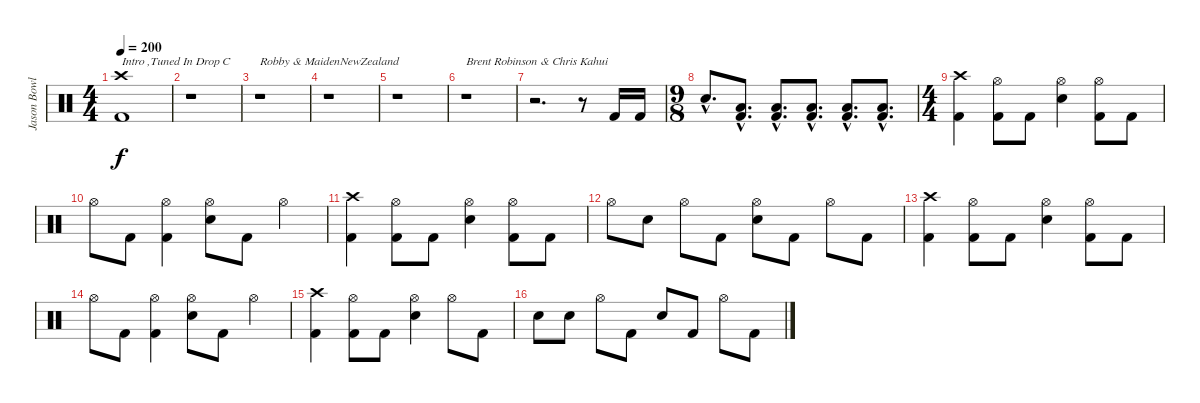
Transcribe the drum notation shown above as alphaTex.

\track ("Jason Bowld" "Jason Bowl") {instrument percussion}
\staff {score}
\articulation defaults
\ts (4 4)
\tempo 200
\clef neutral
\ks c
("Crash high (hit)" "Kick (hit) 2").1{txt "Intro ,Tuned In Drop C" dy f} |
r.1 |
r.1{txt "Robby & MaidenNewZealand"} |
r.1 |
r.1 |
r.1{txt "Brent Robinson & Chris Kahui"} |
r.2{d} r.8 "Kick (hit) 2".16 "Kick (hit) 2".16 |
\ts (9 8)
"Snare (hit) 2"{hac}.8{d} ("Low Floor Tom (hit)"{hac} "Kick (hit) 2"{hac}).8{d} ("Low Floor Tom (hit)"{hac} "Kick (hit) 2"{hac}).8{d} ("Low Floor Tom (hit)"{hac} "Kick (hit) 2"{hac}).8{d} ("Low Floor Tom (hit)"{hac} "Kick (hit) 2"{hac}).8{d} ("Low Floor Tom (hit)"{hac} "Kick (hit) 2"{hac}).8{d} |
\ts (4 4)
("Crash high (hit)" "Kick (hit) 2").4 ("Hi-Hat (open)" "Kick (hit) 2").8 "Kick (hit) 2".8 ("Hi-Hat (open)" "Snare (hit) 2").4 ("Hi-Hat (open)" "Kick (hit) 2").8 "Kick (hit) 2".8 |
"Hi-Hat (open)".8 "Kick (hit) 2".8 ("Hi-Hat (open)" "Kick (hit) 2").4 ("Hi-Hat (open)" "Snare (hit) 2").8 "Kick (hit) 2".8 "Hi-Hat (open)".4 |
("Crash high (hit)" "Kick (hit) 2").4 ("Hi-Hat (open)" "Kick (hit) 2").8 "Kick (hit) 2".8 ("Hi-Hat (open)" "Snare (hit) 2").4 ("Hi-Hat (open)" "Kick (hit) 2").8 "Kick (hit) 2".8 |
"Hi-Hat (open)".8 "Snare (hit) 2".8 "Hi-Hat (open)".8 "Kick (hit) 2".8 ("Hi-Hat (open)" "Snare (hit) 2").8 "Kick (hit) 2".8 "Hi-Hat (open)".8 "Kick (hit) 2".8 |
("Crash high (hit)" "Kick (hit) 2").4 ("Hi-Hat (open)" "Kick (hit) 2").8 "Kick (hit) 2".8 ("Hi-Hat (open)" "Snare (hit) 2").4 ("Hi-Hat (open)" "Kick (hit) 2").8 "Kick (hit) 2".8 |
"Hi-Hat (open)".8 "Kick (hit) 2".8 ("Hi-Hat (open)" "Kick (hit) 2").4 ("Hi-Hat (open)" "Snare (hit) 2").8 "Kick (hit) 2".8 "Hi-Hat (open)".4 |
("Crash high (hit)" "Kick (hit) 2").4 ("Hi-Hat (open)" "Kick (hit) 2").8 "Kick (hit) 2".8 ("Hi-Hat (open)" "Snare (hit) 2").4 "Hi-Hat (open)".8 "Kick (hit) 2".8 |
"Snare (hit) 2".8 "Snare (hit) 2".8 "Hi-Hat (open)".8 "Kick (hit) 2".8 "Snare (hit) 2".8 "Kick (hit) 2".8 "Hi-Hat (open)".8 "Kick (hit) 2".8
